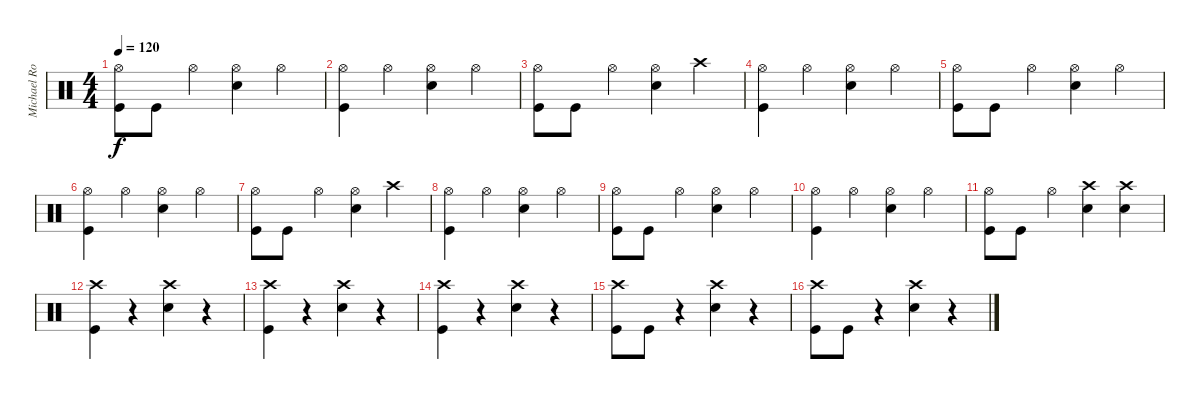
\track ("Michael Roponus " "Michael Ro") {instrument percussion}
\staff {score}
\articulation defaults
\ts (4 4)
\tempo 120
\clef neutral
\ks c
("Hi-Hat (open)" "Kick (hit)").8{dy f} "Kick (hit)".8 "Hi-Hat (open)".4 ("Hi-Hat (open)" "Snare (hit) 2").4 "Hi-Hat (open)".4 |
("Hi-Hat (open)" "Kick (hit)").4 "Hi-Hat (open)".4 ("Hi-Hat (open)" "Snare (hit) 2").4 "Hi-Hat (open)".4 |
("Hi-Hat (open)" "Kick (hit)").8 "Kick (hit)".8 "Hi-Hat (open)".4 ("Hi-Hat (open)" "Snare (hit) 2").4 "Crash high (hit)".4 |
("Hi-Hat (open)" "Kick (hit)").4 "Hi-Hat (open)".4 ("Hi-Hat (open)" "Snare (hit) 2").4 "Hi-Hat (open)".4 |
("Hi-Hat (open)" "Kick (hit)").8 "Kick (hit)".8 "Hi-Hat (open)".4 ("Hi-Hat (open)" "Snare (hit) 2").4 "Hi-Hat (open)".4 |
("Hi-Hat (open)" "Kick (hit)").4 "Hi-Hat (open)".4 ("Hi-Hat (open)" "Snare (hit) 2").4 "Hi-Hat (open)".4 |
("Hi-Hat (open)" "Kick (hit)").8 "Kick (hit)".8 "Hi-Hat (open)".4 ("Hi-Hat (open)" "Snare (hit) 2").4 "Crash high (hit)".4 |
("Hi-Hat (open)" "Kick (hit)").4 "Hi-Hat (open)".4 ("Hi-Hat (open)" "Snare (hit) 2").4 "Hi-Hat (open)".4 |
("Hi-Hat (open)" "Kick (hit)").8 "Kick (hit)".8 "Hi-Hat (open)".4 ("Hi-Hat (open)" "Snare (hit) 2").4 "Hi-Hat (open)".4 |
("Hi-Hat (open)" "Kick (hit)").4 "Hi-Hat (open)".4 ("Hi-Hat (open)" "Snare (hit) 2").4 "Hi-Hat (open)".4 |
("Hi-Hat (open)" "Kick (hit)").8 "Kick (hit)".8 "Hi-Hat (open)".4 ("Crash high (hit)" "Snare (hit) 2").4 ("Crash high (hit)" "Snare (hit) 2").4 |
("Crash high (hit)" "Kick (hit)").4 r.4 ("Crash high (hit)" "Snare (hit) 2").4 r.4 |
("Crash high (hit)" "Kick (hit)").4 r.4 ("Crash high (hit)" "Snare (hit) 2").4 r.4 |
("Crash high (hit)" "Kick (hit)").4 r.4 ("Crash high (hit)" "Snare (hit) 2").4 r.4 |
("Crash high (hit)" "Kick (hit)").8 "Kick (hit)".8 r.4 ("Crash high (hit)" "Snare (hit) 2").4 r.4 |
("Crash high (hit)" "Kick (hit)").8 "Kick (hit)".8 r.4 ("Crash high (hit)" "Snare (hit) 2").4 r.4
